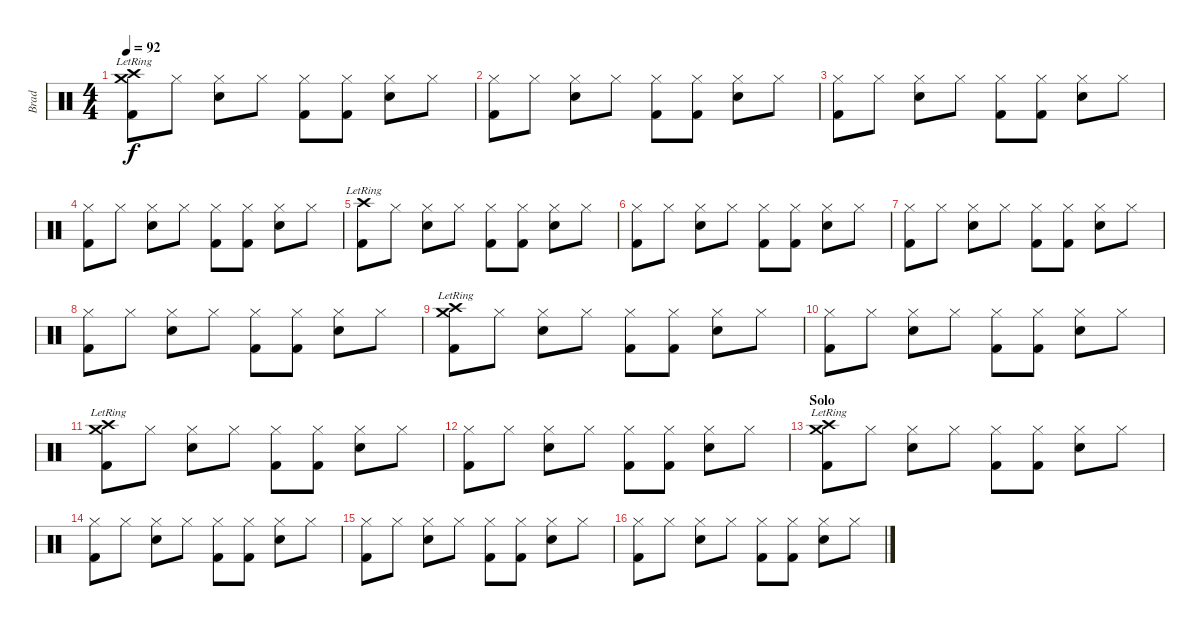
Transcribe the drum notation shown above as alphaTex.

\track ("Brad" "Brad") {instrument percussion}
\staff {score}
\articulation defaults
\ts (4 4)
\tempo 92
\clef neutral
\ks c
("Crash high (hit)"{lr} "Crash medium (hit)"{lr} "Kick (hit) 2").8{dy f} "Hi-Hat (closed)".8 ("Hi-Hat (closed)" "Electric Snare (hit)").8 "Hi-Hat (closed)".8 ("Hi-Hat (closed)" "Kick (hit) 2").8 ("Hi-Hat (closed)" "Kick (hit) 2").8 ("Hi-Hat (closed)" "Electric Snare (hit)").8 "Hi-Hat (closed)".8 |
("Hi-Hat (closed)" "Kick (hit) 2").8 "Hi-Hat (closed)".8 ("Hi-Hat (closed)" "Electric Snare (hit)").8 "Hi-Hat (closed)".8 ("Hi-Hat (closed)" "Kick (hit) 2").8 ("Hi-Hat (closed)" "Kick (hit) 2").8 ("Hi-Hat (closed)" "Electric Snare (hit)").8 "Hi-Hat (closed)".8 |
("Hi-Hat (closed)" "Kick (hit) 2").8 "Hi-Hat (closed)".8 ("Hi-Hat (closed)" "Electric Snare (hit)").8 "Hi-Hat (closed)".8 ("Hi-Hat (closed)" "Kick (hit) 2").8 ("Hi-Hat (closed)" "Kick (hit) 2").8 ("Hi-Hat (closed)" "Electric Snare (hit)").8 "Hi-Hat (closed)".8 |
("Hi-Hat (closed)" "Kick (hit) 2").8 "Hi-Hat (closed)".8 ("Hi-Hat (closed)" "Electric Snare (hit)").8 "Hi-Hat (closed)".8 ("Hi-Hat (closed)" "Kick (hit) 2").8 ("Hi-Hat (closed)" "Kick (hit) 2").8 ("Hi-Hat (closed)" "Electric Snare (hit)").8 "Hi-Hat (closed)".8 |
("Crash high (hit)"{lr} "Kick (hit) 2").8 "Hi-Hat (closed)".8 ("Hi-Hat (closed)" "Electric Snare (hit)").8 "Hi-Hat (closed)".8 ("Hi-Hat (closed)" "Kick (hit) 2").8 ("Hi-Hat (closed)" "Kick (hit) 2").8 ("Hi-Hat (closed)" "Electric Snare (hit)").8 "Hi-Hat (closed)".8 |
("Hi-Hat (closed)" "Kick (hit) 2").8 "Hi-Hat (closed)".8 ("Hi-Hat (closed)" "Electric Snare (hit)").8 "Hi-Hat (closed)".8 ("Hi-Hat (closed)" "Kick (hit) 2").8 ("Hi-Hat (closed)" "Kick (hit) 2").8 ("Hi-Hat (closed)" "Electric Snare (hit)").8 "Hi-Hat (closed)".8 |
("Hi-Hat (closed)" "Kick (hit) 2").8 "Hi-Hat (closed)".8 ("Hi-Hat (closed)" "Electric Snare (hit)").8 "Hi-Hat (closed)".8 ("Hi-Hat (closed)" "Kick (hit) 2").8 ("Hi-Hat (closed)" "Kick (hit) 2").8 ("Hi-Hat (closed)" "Electric Snare (hit)").8 "Hi-Hat (closed)".8 |
("Hi-Hat (closed)" "Kick (hit) 2").8 "Hi-Hat (closed)".8 ("Hi-Hat (closed)" "Electric Snare (hit)").8 "Hi-Hat (closed)".8 ("Hi-Hat (closed)" "Kick (hit) 2").8 ("Hi-Hat (closed)" "Kick (hit) 2").8 ("Hi-Hat (closed)" "Electric Snare (hit)").8 "Hi-Hat (closed)".8 |
("Crash high (hit)"{lr} "Crash medium (hit)"{lr} "Kick (hit) 2").8 "Hi-Hat (closed)".8 ("Hi-Hat (closed)" "Electric Snare (hit)").8 "Hi-Hat (closed)".8 ("Hi-Hat (closed)" "Kick (hit) 2").8 ("Hi-Hat (closed)" "Kick (hit) 2").8 ("Hi-Hat (closed)" "Electric Snare (hit)").8 "Hi-Hat (closed)".8 |
("Hi-Hat (closed)" "Kick (hit) 2").8 "Hi-Hat (closed)".8 ("Hi-Hat (closed)" "Electric Snare (hit)").8 "Hi-Hat (closed)".8 ("Hi-Hat (closed)" "Kick (hit) 2").8 ("Hi-Hat (closed)" "Kick (hit) 2").8 ("Hi-Hat (closed)" "Electric Snare (hit)").8 "Hi-Hat (closed)".8 |
("Crash high (hit)"{lr} "Crash medium (hit)"{lr} "Kick (hit) 2").8 "Hi-Hat (closed)".8 ("Hi-Hat (closed)" "Electric Snare (hit)").8 "Hi-Hat (closed)".8 ("Hi-Hat (closed)" "Kick (hit) 2").8 ("Hi-Hat (closed)" "Kick (hit) 2").8 ("Hi-Hat (closed)" "Electric Snare (hit)").8 "Hi-Hat (closed)".8 |
("Hi-Hat (closed)" "Kick (hit) 2").8 "Hi-Hat (closed)".8 ("Hi-Hat (closed)" "Electric Snare (hit)").8 "Hi-Hat (closed)".8 ("Hi-Hat (closed)" "Kick (hit) 2").8 ("Hi-Hat (closed)" "Kick (hit) 2").8 ("Hi-Hat (closed)" "Electric Snare (hit)").8 "Hi-Hat (closed)".8 |
\section ("" "Solo")
("Crash high (hit)"{lr} "Crash medium (hit)"{lr} "Kick (hit) 2").8 "Hi-Hat (closed)".8 ("Hi-Hat (closed)" "Electric Snare (hit)").8 "Hi-Hat (closed)".8 ("Hi-Hat (closed)" "Kick (hit) 2").8 ("Hi-Hat (closed)" "Kick (hit) 2").8 ("Hi-Hat (closed)" "Electric Snare (hit)").8 "Hi-Hat (closed)".8 |
("Hi-Hat (closed)" "Kick (hit) 2").8 "Hi-Hat (closed)".8 ("Hi-Hat (closed)" "Electric Snare (hit)").8 "Hi-Hat (closed)".8 ("Hi-Hat (closed)" "Kick (hit) 2").8 ("Hi-Hat (closed)" "Kick (hit) 2").8 ("Hi-Hat (closed)" "Electric Snare (hit)").8 "Hi-Hat (closed)".8 |
("Hi-Hat (closed)" "Kick (hit) 2").8 "Hi-Hat (closed)".8 ("Hi-Hat (closed)" "Electric Snare (hit)").8 "Hi-Hat (closed)".8 ("Hi-Hat (closed)" "Kick (hit) 2").8 ("Hi-Hat (closed)" "Kick (hit) 2").8 ("Hi-Hat (closed)" "Electric Snare (hit)").8 "Hi-Hat (closed)".8 |
("Hi-Hat (closed)" "Kick (hit) 2").8 "Hi-Hat (closed)".8 ("Hi-Hat (closed)" "Electric Snare (hit)").8 "Hi-Hat (closed)".8 ("Hi-Hat (closed)" "Kick (hit) 2").8 ("Hi-Hat (closed)" "Kick (hit) 2").8 ("Hi-Hat (closed)" "Electric Snare (hit)").8 "Hi-Hat (closed)".8
